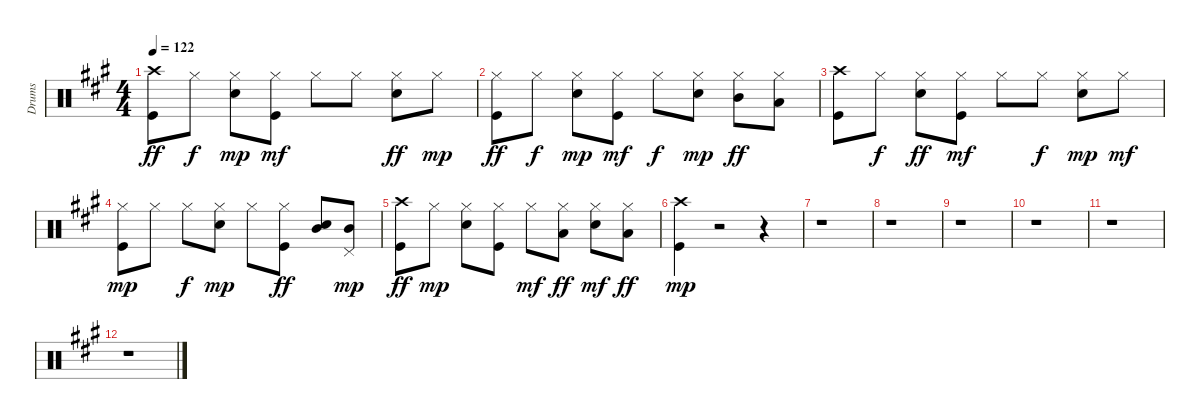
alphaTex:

\track ("Drums" "Drums") {instrument percussion}
\staff {score}
\articulation defaults
\ts (4 4)
\tempo 122
\clef neutral
\ks a
("Kick (hit)" "Crash high (hit)").8{dy ff} "Hi-Hat (closed)".8{dy f} ("Electric Snare (hit)" "Hi-Hat (closed)").8{dy mp} ("Kick (hit)" "Hi-Hat (closed)").8{dy mf} "Hi-Hat (closed)".8 "Hi-Hat (closed)".8 ("Electric Snare (hit)" "Hi-Hat (closed)").8{dy ff} "Hi-Hat (closed)".8{dy mp} |
("Kick (hit)" "Hi-Hat (closed)").8{dy ff} "Hi-Hat (closed)".8{dy f} ("Electric Snare (hit)" "Hi-Hat (closed)").8{dy mp} ("Kick (hit)" "Hi-Hat (closed)").8{dy mf} "Hi-Hat (closed)".8{dy f} ("Electric Snare (hit)" "Hi-Hat (closed)").8{dy mp} ("Hi-Hat (closed)" "Mid Tom (hit)").8{dy ff} ("Hi-Hat (closed)" "Low Tom (hit)").8 |
("Kick (hit)" "Crash high (hit)").8 "Hi-Hat (closed)".8{dy f} ("Electric Snare (hit)" "Hi-Hat (closed)").8{dy ff} ("Kick (hit)" "Hi-Hat (closed)").8{dy mf} "Hi-Hat (closed)".8 "Hi-Hat (closed)".8{dy f} ("Electric Snare (hit)" "Hi-Hat (closed)").8{dy mp} "Hi-Hat (closed)".8{dy mf} |
("Kick (hit)" "Hi-Hat (closed)").8{dy mp} "Hi-Hat (closed)".8 "Hi-Hat (closed)".8{dy f} ("Electric Snare (hit)" "Hi-Hat (closed)").8{dy mp} "Hi-Hat (closed)".8 ("Kick (hit)" "Hi-Hat (closed)").8{dy ff} ("Electric Snare (hit)" "Mid Tom (hit)").8 ("Pedal Hi-Hat (hit)" "Mid Tom (hit)").8{dy mp} |
("Kick (hit)" "Crash high (hit)").8{dy ff} "Hi-Hat (closed)".8{dy mp} ("Electric Snare (hit)" "Hi-Hat (closed)").8 ("Kick (hit)" "Hi-Hat (closed)").8 "Hi-Hat (closed)".8{dy mf} ("Hi-Hat (closed)" "Low Tom (hit)").8{dy ff} ("Electric Snare (hit)" "Hi-Hat (closed)").8{dy mf} ("Hi-Hat (closed)" "Low Tom (hit)").8{dy ff} |
("Kick (hit)" "Crash high (hit)").4{dy mp} r.2 r.4 |
r.1 |
r.1 |
r.1 |
r.1 |
r.1 |
r.1
